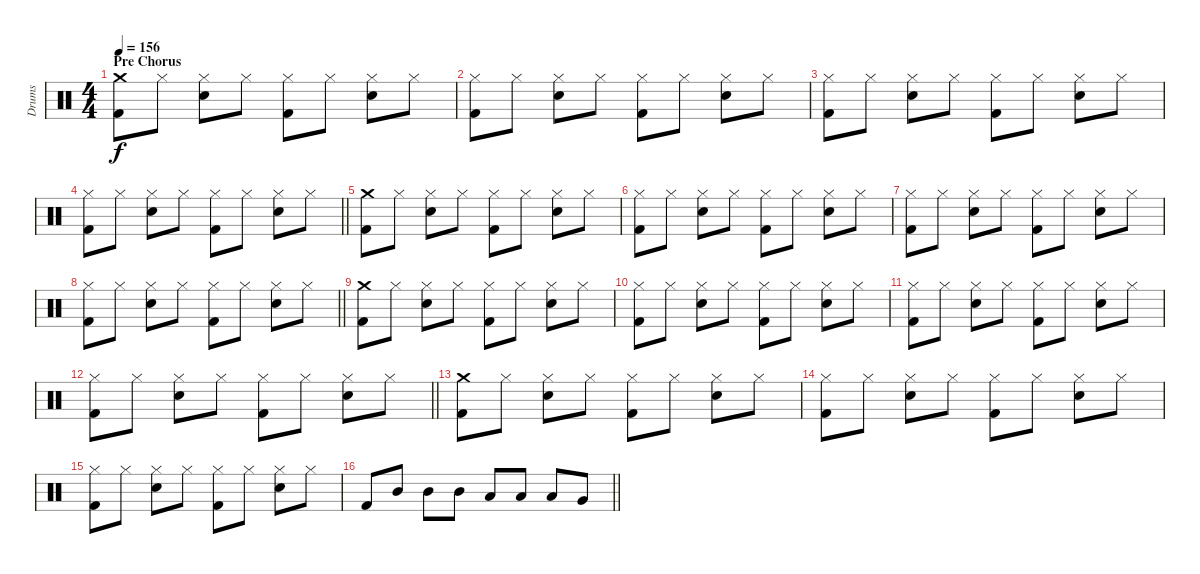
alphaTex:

\track ("Drums" "Drums") {instrument percussion}
\staff {score}
\articulation defaults
\ts (4 4)
\section ("" "Pre Chorus")
\tempo 156
\clef neutral
\ks c
("Crash medium (hit)" "Kick (hit) 2").8{dy f} "Hi-Hat (closed)".8 ("Hi-Hat (closed)" "Electric Snare (hit)").8 "Hi-Hat (closed)".8 ("Hi-Hat (closed)" "Kick (hit) 2").8 "Hi-Hat (closed)".8 ("Hi-Hat (closed)" "Electric Snare (hit)").8 "Hi-Hat (closed)".8 |
("Hi-Hat (closed)" "Kick (hit) 2").8 "Hi-Hat (closed)".8 ("Hi-Hat (closed)" "Electric Snare (hit)").8 "Hi-Hat (closed)".8 ("Hi-Hat (closed)" "Kick (hit) 2").8 "Hi-Hat (closed)".8 ("Hi-Hat (closed)" "Electric Snare (hit)").8 "Hi-Hat (closed)".8 |
("Hi-Hat (closed)" "Kick (hit) 2").8 "Hi-Hat (closed)".8 ("Hi-Hat (closed)" "Electric Snare (hit)").8 "Hi-Hat (closed)".8 ("Hi-Hat (closed)" "Kick (hit) 2").8 "Hi-Hat (closed)".8 ("Hi-Hat (closed)" "Electric Snare (hit)").8 "Hi-Hat (closed)".8 |
\barLineRight lightlight
("Hi-Hat (closed)" "Kick (hit) 2").8 "Hi-Hat (closed)".8 ("Hi-Hat (closed)" "Electric Snare (hit)").8 "Hi-Hat (closed)".8 ("Hi-Hat (closed)" "Kick (hit) 2").8 "Hi-Hat (closed)".8 ("Hi-Hat (closed)" "Electric Snare (hit)").8 "Hi-Hat (closed)".8 |
("Crash medium (hit)" "Kick (hit) 2").8 "Hi-Hat (closed)".8 ("Hi-Hat (closed)" "Electric Snare (hit)").8 "Hi-Hat (closed)".8 ("Hi-Hat (closed)" "Kick (hit) 2").8 "Hi-Hat (closed)".8 ("Hi-Hat (closed)" "Electric Snare (hit)").8 "Hi-Hat (closed)".8 |
("Hi-Hat (closed)" "Kick (hit) 2").8 "Hi-Hat (closed)".8 ("Hi-Hat (closed)" "Electric Snare (hit)").8 "Hi-Hat (closed)".8 ("Hi-Hat (closed)" "Kick (hit) 2").8 "Hi-Hat (closed)".8 ("Hi-Hat (closed)" "Electric Snare (hit)").8 "Hi-Hat (closed)".8 |
("Hi-Hat (closed)" "Kick (hit) 2").8 "Hi-Hat (closed)".8 ("Hi-Hat (closed)" "Electric Snare (hit)").8 "Hi-Hat (closed)".8 ("Hi-Hat (closed)" "Kick (hit) 2").8 "Hi-Hat (closed)".8 ("Hi-Hat (closed)" "Electric Snare (hit)").8 "Hi-Hat (closed)".8 |
\barLineRight lightlight
("Hi-Hat (closed)" "Kick (hit) 2").8 "Hi-Hat (closed)".8 ("Hi-Hat (closed)" "Electric Snare (hit)").8 "Hi-Hat (closed)".8 ("Hi-Hat (closed)" "Kick (hit) 2").8 "Hi-Hat (closed)".8 ("Hi-Hat (closed)" "Electric Snare (hit)").8 "Hi-Hat (closed)".8 |
("Crash medium (hit)" "Kick (hit) 2").8 "Hi-Hat (closed)".8 ("Hi-Hat (closed)" "Electric Snare (hit)").8 "Hi-Hat (closed)".8 ("Hi-Hat (closed)" "Kick (hit) 2").8 "Hi-Hat (closed)".8 ("Hi-Hat (closed)" "Electric Snare (hit)").8 "Hi-Hat (closed)".8 |
("Hi-Hat (closed)" "Kick (hit) 2").8 "Hi-Hat (closed)".8 ("Hi-Hat (closed)" "Electric Snare (hit)").8 "Hi-Hat (closed)".8 ("Hi-Hat (closed)" "Kick (hit) 2").8 "Hi-Hat (closed)".8 ("Hi-Hat (closed)" "Electric Snare (hit)").8 "Hi-Hat (closed)".8 |
("Hi-Hat (closed)" "Kick (hit) 2").8 "Hi-Hat (closed)".8 ("Hi-Hat (closed)" "Electric Snare (hit)").8 "Hi-Hat (closed)".8 ("Hi-Hat (closed)" "Kick (hit) 2").8 "Hi-Hat (closed)".8 ("Hi-Hat (closed)" "Electric Snare (hit)").8 "Hi-Hat (closed)".8 |
\barLineRight lightlight
("Hi-Hat (closed)" "Kick (hit) 2").8 "Hi-Hat (closed)".8 ("Hi-Hat (closed)" "Electric Snare (hit)").8 "Hi-Hat (closed)".8 ("Hi-Hat (closed)" "Kick (hit) 2").8 "Hi-Hat (closed)".8 ("Hi-Hat (closed)" "Electric Snare (hit)").8 "Hi-Hat (closed)".8 |
("Crash medium (hit)" "Kick (hit) 2").8 "Hi-Hat (closed)".8 ("Hi-Hat (closed)" "Electric Snare (hit)").8 "Hi-Hat (closed)".8 ("Hi-Hat (closed)" "Kick (hit) 2").8 "Hi-Hat (closed)".8 ("Hi-Hat (closed)" "Electric Snare (hit)").8 "Hi-Hat (closed)".8 |
("Hi-Hat (closed)" "Kick (hit) 2").8 "Hi-Hat (closed)".8 ("Hi-Hat (closed)" "Electric Snare (hit)").8 "Hi-Hat (closed)".8 ("Hi-Hat (closed)" "Kick (hit) 2").8 "Hi-Hat (closed)".8 ("Hi-Hat (closed)" "Electric Snare (hit)").8 "Hi-Hat (closed)".8 |
("Hi-Hat (closed)" "Kick (hit) 2").8 "Hi-Hat (closed)".8 ("Hi-Hat (closed)" "Electric Snare (hit)").8 "Hi-Hat (closed)".8 ("Hi-Hat (closed)" "Kick (hit) 2").8 "Hi-Hat (closed)".8 ("Hi-Hat (closed)" "Electric Snare (hit)").8 "Hi-Hat (closed)".8 |
\barLineRight lightlight "Kick (hit) 2".8 "Mid Tom (hit)".8 "Mid Tom (hit)".8 "Mid Tom (hit)".8 "Low Tom (hit)".8 "Low Tom (hit)".8 "Low Tom (hit)".8 "Very Low Tom (hit)".8
